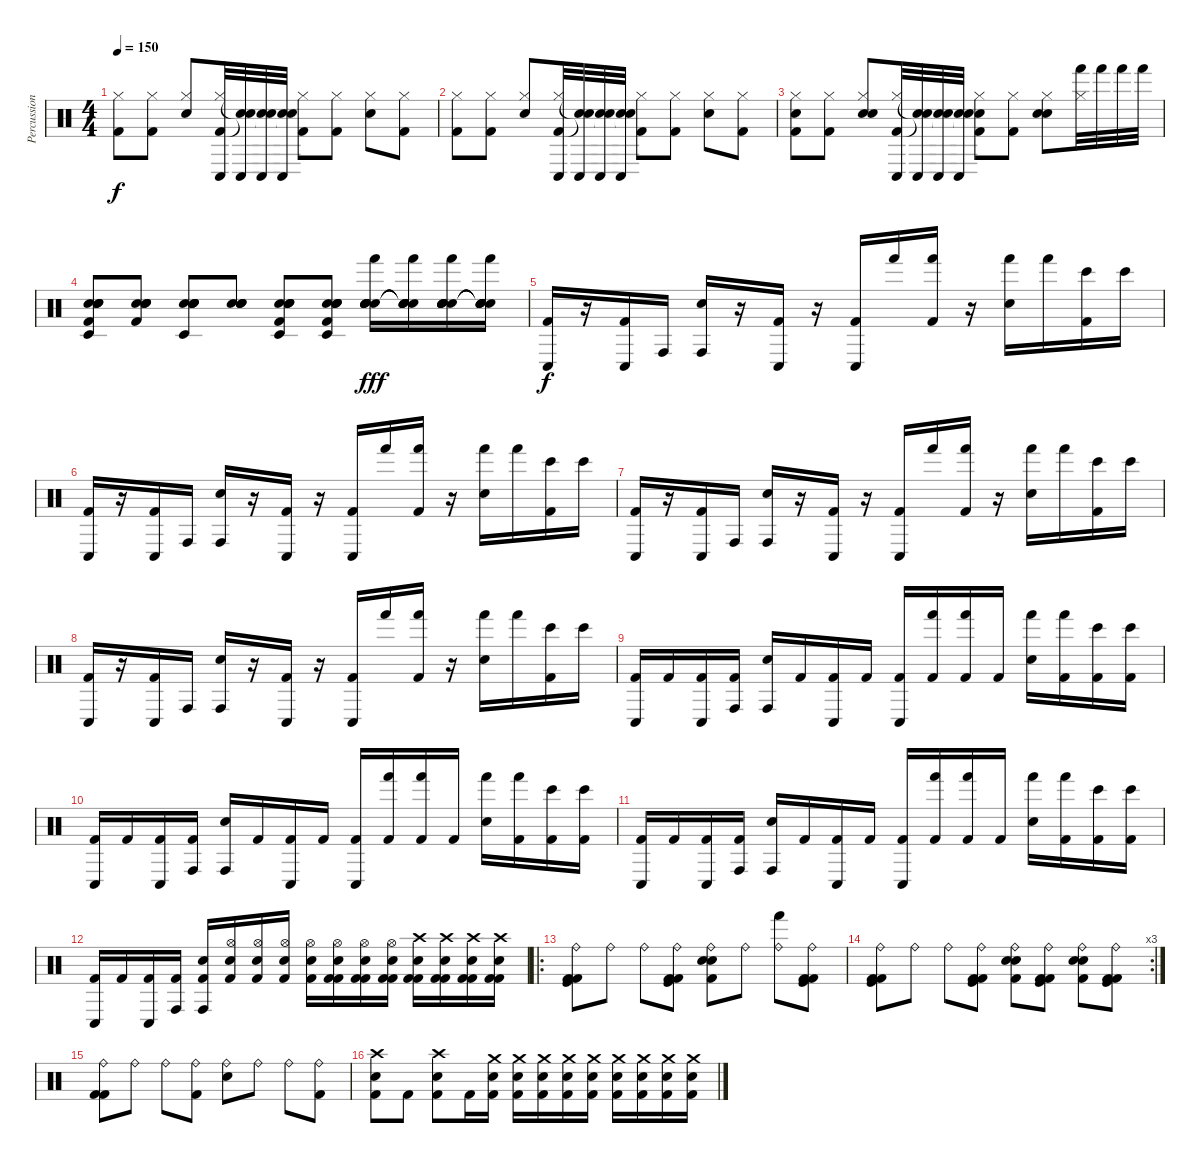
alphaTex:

\track ("Percussions" "Percussion") {instrument percussion}
\staff {score}
\articulation defaults
\ts (4 4)
\tempo 150
\clef neutral
\ks c
("Hi-Hat (closed)" "Kick (hit) 2").8{dy f} ("Hi-Hat (closed)" "Kick (hit) 2").8 ("Hi-Hat (closed)" "Electric Snare (hit)").8 ("Hi-Hat (closed)" "Kick (hit) 2" "Conga low (hit)").32 ("Snare (hit)"{t} "Snare (hit)"{t} "Conga low (hit)").32 ("Snare (hit)"{t} "Snare (hit)"{t} "Conga low (hit)").32 ("Snare (hit)"{t} "Snare (hit)"{t} "Conga low (hit)").32 ("Hi-Hat (closed)" "Kick (hit) 2").8 ("Hi-Hat (closed)" "Kick (hit) 2").8 ("Hi-Hat (closed)" "Electric Snare (hit)").8 ("Hi-Hat (closed)" "Kick (hit) 2").8 |
("Hi-Hat (closed)" "Kick (hit) 2").8 ("Hi-Hat (closed)" "Kick (hit) 2").8 ("Hi-Hat (closed)" "Electric Snare (hit)").8 ("Hi-Hat (closed)" "Kick (hit) 2" "Conga low (hit)").32 ("Snare (hit)"{t} "Snare (hit)"{t} "Conga low (hit)").32 ("Snare (hit)"{t} "Snare (hit)"{t} "Conga low (hit)").32 ("Snare (hit)"{t} "Snare (hit)"{t} "Conga low (hit)").32 ("Hi-Hat (closed)" "Kick (hit) 2").8 ("Hi-Hat (closed)" "Kick (hit) 2").8 ("Hi-Hat (closed)" "Electric Snare (hit)").8 ("Hi-Hat (closed)" "Kick (hit) 2").8 |
("Hi-Hat (closed)" "Hand Clap (hit)" "Kick (hit) 2").8 ("Hi-Hat (closed)" "Kick (hit) 2").8 ("Hi-Hat (closed)" "Hand Clap (hit)" "Electric Snare (hit)").8 ("Hi-Hat (closed)" "Kick (hit) 2" "Conga low (hit)").32 ("Snare (hit)"{t} "Snare (hit)"{t} "Conga low (hit)").32 ("Snare (hit)"{t} "Snare (hit)"{t} "Conga low (hit)").32 ("Snare (hit)"{t} "Snare (hit)"{t} "Conga low (hit)").32 ("Hi-Hat (closed)" "Hand Clap (hit)" "Kick (hit) 2").8 ("Hi-Hat (closed)" "Kick (hit) 2").8 ("Hi-Hat (closed)" "Hand Clap (hit)" "Electric Snare (hit)").8 ("Hi-Hat (closed)" "Hand (hit)").32 "Hand (hit)".32 "Hand (hit)".32 "Hand (hit)".32 |
("Hand Clap (hit)" "Hand Clap (hit)" "Hand Clap (hit)" "Hand Clap (hit)" "Timbale low (hit)" "Kick (hit) 2").8 ("Hand Clap (hit)" "Hand Clap (hit)" "Hand Clap (hit)" "Hand Clap (hit)" "Kick (hit) 2").8 ("Hand Clap (hit)" "Hand Clap (hit)" "Hand Clap (hit)" "Hand Clap (hit)" "Timbale low (hit)" "Electric Snare (hit)").8 ("Hand Clap (hit)" "Hand Clap (hit)" "Hand Clap (hit)" "Hand Clap (hit)").8 ("Hand Clap (hit)" "Hand Clap (hit)" "Hand Clap (hit)" "Hand Clap (hit)" "Timbale low (hit)" "Kick (hit) 2").8 ("Hand Clap (hit)" "Hand Clap (hit)" "Hand Clap (hit)" "Hand Clap (hit)" "Timbale low (hit)" "Kick (hit) 2").8 ("Hand Clap (hit)" "Hand Clap (hit)" "Hand Clap (hit)" "Hand Clap (hit)" "Hand (hit)" "Electric Snare (hit)").16{dy fff} ("Hand Clap (hit)"{t} "Hand Clap (hit)"{t} "Hand Clap (hit)"{t} "Hand Clap (hit)"{t} "Hand (hit)" "Electric Snare (hit)").16 ("Hand Clap (hit)" "Hand Clap (hit)" "Hand Clap (hit)" "Hand Clap (hit)" "Hand (hit)" "Electric Snare (hit)").16 ("Snare (hit)"{t} "Snare (hit)"{t} "Snare (hit)"{t} "Snare (hit)"{t} "Hand (hit)" "Electric Snare (hit)").16 |
("Conga low (hit)" "Kick (hit) 2").16{dy f} r.16 ("Conga low (hit)" "Kick (hit) 2").16 "Conga high (hit)".16 ("Conga high (hit)" "Electric Snare (hit)").16 r.16 ("Conga low (hit)" "Kick (hit) 2").16 r.16 ("Conga low (hit)" "Kick (hit) 2").16 "Hand (hit)".16 ("Hand (hit)" "Kick (hit) 2").16 r.16 ("Hand (hit)" "Electric Snare (hit)").16 "Hand (hit)".16 ("Bongo High (hit)" "Kick (hit) 2").16 "Bongo High (hit)".16 |
("Conga low (hit)" "Kick (hit) 2").16 r.16 ("Conga low (hit)" "Kick (hit) 2").16 "Conga high (hit)".16 ("Conga high (hit)" "Electric Snare (hit)").16 r.16 ("Conga low (hit)" "Kick (hit) 2").16 r.16 ("Conga low (hit)" "Kick (hit) 2").16 "Hand (hit)".16 ("Hand (hit)" "Kick (hit) 2").16 r.16 ("Hand (hit)" "Electric Snare (hit)").16 "Hand (hit)".16 ("Bongo High (hit)" "Kick (hit) 2").16 "Bongo High (hit)".16 |
("Conga low (hit)" "Kick (hit) 2").16 r.16 ("Conga low (hit)" "Kick (hit) 2").16 "Conga high (hit)".16 ("Conga high (hit)" "Electric Snare (hit)").16 r.16 ("Conga low (hit)" "Kick (hit) 2").16 r.16 ("Conga low (hit)" "Kick (hit) 2").16 "Hand (hit)".16 ("Hand (hit)" "Kick (hit) 2").16 r.16 ("Hand (hit)" "Electric Snare (hit)").16 "Hand (hit)".16 ("Bongo High (hit)" "Kick (hit) 2").16 "Bongo High (hit)".16 |
("Conga low (hit)" "Kick (hit) 2").16 r.16 ("Conga low (hit)" "Kick (hit) 2").16 "Conga high (hit)".16 ("Conga high (hit)" "Electric Snare (hit)").16 r.16 ("Conga low (hit)" "Kick (hit) 2").16 r.16 ("Conga low (hit)" "Kick (hit) 2").16 "Hand (hit)".16 ("Hand (hit)" "Kick (hit) 2").16 r.16 ("Hand (hit)" "Electric Snare (hit)").16 "Hand (hit)".16 ("Bongo High (hit)" "Kick (hit) 2").16 "Bongo High (hit)".16 |
("Conga low (hit)" "Kick (hit) 2").16 "Kick (hit) 2".16 ("Conga low (hit)" "Kick (hit) 2").16 ("Conga high (hit)" "Kick (hit) 2").16 ("Conga high (hit)" "Electric Snare (hit)").16 "Kick (hit) 2".16 ("Conga low (hit)" "Kick (hit) 2").16 "Kick (hit) 2".16 ("Conga low (hit)" "Kick (hit) 2").16 ("Hand (hit)" "Kick (hit) 2").16 ("Hand (hit)" "Kick (hit) 2").16 "Kick (hit) 2".16 ("Hand (hit)" "Electric Snare (hit)").16 ("Hand (hit)" "Kick (hit) 2").16 ("Bongo High (hit)" "Kick (hit) 2").16 ("Bongo High (hit)" "Kick (hit) 2").16 |
("Conga low (hit)" "Kick (hit) 2").16 "Kick (hit) 2".16 ("Conga low (hit)" "Kick (hit) 2").16 ("Conga high (hit)" "Kick (hit) 2").16 ("Conga high (hit)" "Electric Snare (hit)").16 "Kick (hit) 2".16 ("Conga low (hit)" "Kick (hit) 2").16 "Kick (hit) 2".16 ("Conga low (hit)" "Kick (hit) 2").16 ("Hand (hit)" "Kick (hit) 2").16 ("Hand (hit)" "Kick (hit) 2").16 "Kick (hit) 2".16 ("Hand (hit)" "Electric Snare (hit)").16 ("Hand (hit)" "Kick (hit) 2").16 ("Bongo High (hit)" "Kick (hit) 2").16 ("Bongo High (hit)" "Kick (hit) 2").16 |
("Conga low (hit)" "Kick (hit) 2").16 "Kick (hit) 2".16 ("Conga low (hit)" "Kick (hit) 2").16 ("Conga high (hit)" "Kick (hit) 2").16 ("Conga high (hit)" "Electric Snare (hit)").16 "Kick (hit) 2".16 ("Conga low (hit)" "Kick (hit) 2").16 "Kick (hit) 2".16 ("Conga low (hit)" "Kick (hit) 2").16 ("Hand (hit)" "Kick (hit) 2").16 ("Hand (hit)" "Kick (hit) 2").16 "Kick (hit) 2".16 ("Hand (hit)" "Electric Snare (hit)").16 ("Hand (hit)" "Kick (hit) 2").16 ("Bongo High (hit)" "Kick (hit) 2").16 ("Bongo High (hit)" "Kick (hit) 2").16 |
("Conga low (hit)" "Kick (hit) 2").16 "Kick (hit) 2".16 ("Conga low (hit)" "Kick (hit) 2").16 ("Conga high (hit)" "Kick (hit) 2").16 ("Conga high (hit)" "Kick (hit) 2" "Electric Snare (hit)").16 ("Hi-Hat (open)" "Kick (hit) 2" "Electric Snare (hit)").16 ("Hi-Hat (open)" "Kick (hit) 2" "Electric Snare (hit)").16 ("Hi-Hat (open)" "Kick (hit) 2" "Electric Snare (hit)").16 ("Hi-Hat (open)" "Kick (hit) 2" "Electric Snare (hit)").16 ("Hi-Hat (open)" "Kick (hit) 2" "Kick (hit) 2" "Electric Snare (hit)").16 ("Hi-Hat (open)" "Kick (hit) 2" "Kick (hit) 2" "Electric Snare (hit)").16 ("Hi-Hat (open)" "Kick (hit) 2" "Kick (hit) 2" "Electric Snare (hit)").16 ("Crash high (hit)" "Kick (hit) 2" "Kick (hit) 2" "Electric Snare (hit)").16 ("Crash high (hit)" "Kick (hit) 2" "Kick (hit) 2" "Electric Snare (hit)").16 ("Crash high (hit)" "Kick (hit) 2" "Kick (hit) 2" "Electric Snare (hit)").16 ("Crash high (hit)" "Kick (hit) 2" "Kick (hit) 2" "Electric Snare (hit)").16 |
\ro
("Ride (bell)" "Kick (hit)" "Kick (hit) 2" "Kick (hit) 2").8 "Ride (bell)".8 "Ride (bell)".8 ("Ride (bell)" "Kick (hit)" "Kick (hit) 2" "Kick (hit) 2").8 ("Ride (bell)" "Kick (hit) 2" "Electric Snare (hit)" "Electric Snare (hit)").8 "Ride (bell)".8 ("Ride (bell)" "Hand (hit)").8 ("Ride (bell)" "Kick (hit)" "Kick (hit) 2" "Kick (hit) 2").8 |
\rc 3
("Ride (bell)" "Kick (hit)" "Kick (hit) 2" "Kick (hit) 2").8 "Ride (bell)".8 "Ride (bell)".8 ("Ride (bell)" "Kick (hit)" "Kick (hit) 2" "Kick (hit) 2").8 ("Ride (bell)" "Kick (hit) 2" "Electric Snare (hit)" "Electric Snare (hit)").8 ("Ride (bell)" "Kick (hit)" "Kick (hit) 2" "Kick (hit) 2").8 ("Ride (bell)" "Kick (hit) 2" "Electric Snare (hit)" "Electric Snare (hit)").8 ("Ride (bell)" "Kick (hit)" "Kick (hit) 2" "Kick (hit) 2").8 |
("Ride (bell)" "Kick (hit) 2" "Kick (hit) 2").8 "Ride (bell)".8 "Ride (bell)".8 ("Ride (bell)" "Kick (hit) 2").8 ("Ride (bell)" "Electric Snare (hit)").8 "Ride (bell)".8 "Ride (bell)".8 ("Ride (bell)" "Kick (hit) 2").8 |
("Crash high (hit)" "Kick (hit) 2" "Electric Snare (hit)").8 "Kick (hit) 2".8 ("Crash high (hit)" "Kick (hit) 2" "Electric Snare (hit)").8 "Kick (hit) 2".16 ("Crash medium (hit)" "Kick (hit) 2" "Electric Snare (hit)").16 ("Crash medium (hit)" "Kick (hit) 2" "Electric Snare (hit)").16 ("Crash medium (hit)" "Kick (hit) 2" "Electric Snare (hit)").16 ("Crash medium (hit)" "Kick (hit) 2" "Electric Snare (hit)").16 ("Crash medium (hit)" "Kick (hit) 2" "Electric Snare (hit)").16 ("Crash medium (hit)" "Kick (hit) 2" "Electric Snare (hit)").16 ("Crash medium (hit)" "Kick (hit) 2" "Electric Snare (hit)").16 ("Crash medium (hit)" "Kick (hit) 2" "Electric Snare (hit)").16 ("Crash medium (hit)" "Kick (hit) 2" "Electric Snare (hit)").16
